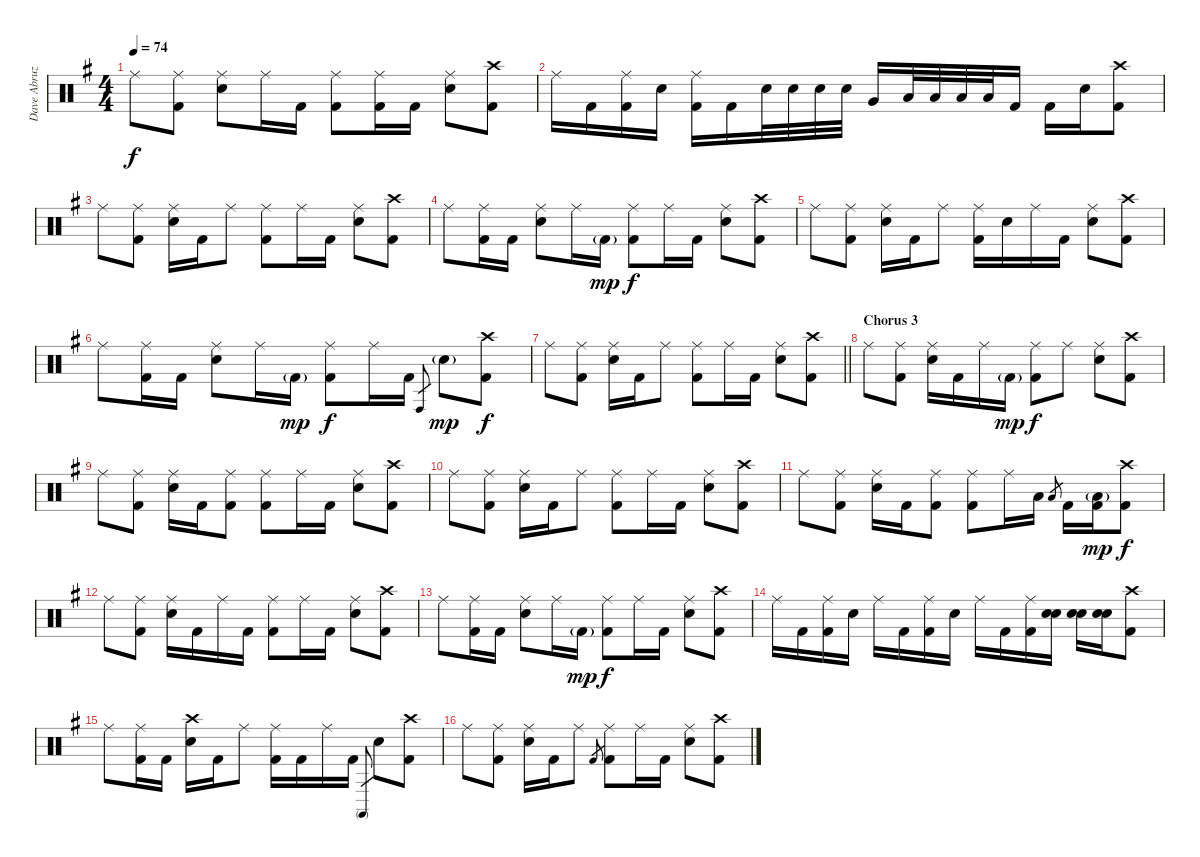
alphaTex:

\track ("Dave Abruzzese" "Dave Abruz") {instrument percussion}
\staff {score}
\articulation defaults
\ts (4 4)
\tempo 74
\clef neutral
\ks eminor "Ride (middle)".8{dy f}
("Ride (middle)" "Kick (hit) 2").8 ("Ride (middle)" "Electric Snare (hit)").8 "Ride (middle)".16 "Kick (hit) 2".16 ("Ride (middle)" "Kick (hit) 2").8 ("Ride (middle)" "Kick (hit) 2").16 "Kick (hit) 2".16 ("Ride (middle)" "Electric Snare (hit)").8 ("Crash high (hit)" "Kick (hit) 2").8 |
"Ride (middle)".16 "Kick (hit) 2".16 ("Ride (middle)" "Kick (hit) 2").16 "Electric Snare (hit)".16 ("Ride (middle)" "Kick (hit) 2").16 "Kick (hit) 2".16 "Electric Snare (hit)".32 "Electric Snare (hit)".32 "Electric Snare (hit)".32 "Electric Snare (hit)".32 "Very Low Tom (hit)".16 "Low Tom (hit)".32 "Low Tom (hit)".32 "Low Tom (hit)".32 "Low Tom (hit)".32 "Kick (hit) 2".16 "Kick (hit) 2".16 "Electric Snare (hit)".16 ("Crash high (hit)" "Kick (hit) 2").8 |
"Ride (middle)".8 ("Ride (middle)" "Kick (hit) 2").8 ("Ride (middle)" "Electric Snare (hit)").16 "Kick (hit) 2".16 "Ride (middle)".8 ("Ride (middle)" "Kick (hit) 2").8 "Ride (middle)".16 "Kick (hit) 2".16 ("Ride (middle)" "Electric Snare (hit)").8 ("Crash high (hit)" "Kick (hit) 2").8 |
"Ride (middle)".8 ("Ride (middle)" "Kick (hit) 2").16 "Kick (hit) 2".16 ("Ride (middle)" "Electric Snare (hit)").8 "Ride (middle)".16 "Kick (hit) 2"{g}.16{dy mp} ("Ride (middle)" "Kick (hit) 2").8{dy f} "Ride (middle)".16 "Kick (hit) 2".16 ("Ride (middle)" "Electric Snare (hit)").8 ("Crash high (hit)" "Kick (hit) 2").8 |
"Ride (middle)".8 ("Ride (middle)" "Kick (hit) 2").8 ("Ride (middle)" "Electric Snare (hit)").16 "Kick (hit) 2".16 "Ride (middle)".8 ("Ride (middle)" "Kick (hit) 2").16 "Electric Snare (hit)".16 "Ride (middle)".16 "Kick (hit) 2".16 ("Ride (middle)" "Electric Snare (hit)").8 ("Crash high (hit)" "Kick (hit) 2").8 |
"Ride (middle)".8 ("Ride (middle)" "Kick (hit) 2").16 "Kick (hit) 2".16 ("Ride (middle)" "Electric Snare (hit)").8 "Ride (middle)".16 "Kick (hit) 2"{g}.16{dy mp} ("Ride (middle)" "Kick (hit) 2").8{dy f} "Ride (middle)".16 "Kick (hit) 2".16 "Conga high (hit)".8{gr} "Electric Snare (hit)"{g}.8{dy mp} ("Crash high (hit)" "Kick (hit) 2").8{dy f} |
\barLineRight lightlight "Ride (middle)".8
("Ride (middle)" "Kick (hit) 2").8 ("Ride (middle)" "Electric Snare (hit)").16 "Kick (hit) 2".16 "Ride (middle)".8 ("Ride (middle)" "Kick (hit) 2").8 "Ride (middle)".16 "Kick (hit) 2".16 ("Ride (middle)" "Electric Snare (hit)").8 ("Crash high (hit)" "Kick (hit) 2").8 |
\section ("" "Chorus 3")
"Ride (middle)".8 ("Ride (middle)" "Kick (hit) 2").8 ("Ride (middle)" "Electric Snare (hit)").16 "Kick (hit) 2".16 "Ride (middle)".16 "Kick (hit) 2"{g}.16{dy mp} ("Ride (middle)" "Kick (hit) 2").8{dy f} "Ride (middle)".8 ("Ride (middle)" "Electric Snare (hit)").8 ("Crash high (hit)" "Kick (hit) 2").8 |
"Ride (middle)".8 ("Ride (middle)" "Kick (hit) 2").8 ("Ride (middle)" "Electric Snare (hit)").16 "Kick (hit) 2".16 ("Ride (middle)" "Kick (hit) 2").8 ("Ride (middle)" "Kick (hit) 2").8 "Ride (middle)".16 "Kick (hit) 2".16 ("Ride (middle)" "Electric Snare (hit)").8 ("Crash high (hit)" "Kick (hit) 2").8 |
"Ride (middle)".8 ("Ride (middle)" "Kick (hit) 2").8 ("Ride (middle)" "Electric Snare (hit)").16 "Kick (hit) 2".16 "Ride (middle)".8 ("Ride (middle)" "Kick (hit) 2").8 "Ride (middle)".16 "Kick (hit) 2".16 ("Ride (middle)" "Electric Snare (hit)").8 ("Crash high (hit)" "Kick (hit) 2").8 |
"Ride (middle)".8 ("Ride (middle)" "Kick (hit) 2").8 ("Ride (middle)" "Electric Snare (hit)").16 "Kick (hit) 2".16 ("Ride (middle)" "Kick (hit) 2").8 ("Ride (middle)" "Kick (hit) 2").8 "Ride (middle)".16 "Low Tom (hit)".16 "Low Floor Tom (hit)".8{gr} "Kick (hit) 2".16 ("Low Floor Tom (hit)"{g} "Kick (hit) 2").16{dy mp} ("Crash high (hit)" "Kick (hit) 2").8{dy f} |
"Ride (middle)".8 ("Ride (middle)" "Kick (hit) 2").8 ("Ride (middle)" "Electric Snare (hit)").16 "Kick (hit) 2".16 "Ride (middle)".16 "Kick (hit) 2".16 ("Ride (middle)" "Kick (hit) 2").8 "Ride (middle)".16 "Kick (hit) 2".16 ("Ride (middle)" "Electric Snare (hit)").8 ("Crash high (hit)" "Kick (hit) 2").8 |
"Ride (middle)".8 ("Ride (middle)" "Kick (hit) 2").16 "Kick (hit) 2".16 ("Ride (middle)" "Electric Snare (hit)").8 "Ride (middle)".16 "Kick (hit) 2"{g}.16{dy mp} ("Ride (middle)" "Kick (hit) 2").8{dy f} "Ride (middle)".16 "Kick (hit) 2".16 ("Ride (middle)" "Electric Snare (hit)").8 ("Crash high (hit)" "Kick (hit) 2").8 |
"Ride (middle)".16 "Kick (hit) 2".16 ("Ride (middle)" "Kick (hit) 2").16 "Electric Snare (hit)".16 "Ride (middle)".16 "Kick (hit) 2".16 ("Ride (middle)" "Kick (hit) 2").16 "Electric Snare (hit)".16 "Ride (middle)".16 "Kick (hit) 2".16 ("Ride (middle)" "Kick (hit) 2").16 ("Electric Snare (hit)" "Electric Snare (hit)").16 ("Electric Snare (hit)" "Electric Snare (hit)").16 ("Electric Snare (hit)" "Electric Snare (hit)").16 ("Crash high (hit)" "Kick (hit) 2").8 |
"Ride (middle)".8 ("Ride (middle)" "Kick (hit) 2").16 "Kick (hit) 2".16 ("Crash high (hit)" "Electric Snare (hit)").16 "Kick (hit) 2".16 "Ride (middle)".8 ("Ride (middle)" "Kick (hit) 2").16 "Kick (hit) 2".16 "Ride (middle)".16 "Kick (hit) 2".16 "Conga high (mute)".8{gr} "Electric Snare (hit)".8 ("Crash high (hit)" "Kick (hit) 2").8 |
"Ride (middle)".8 ("Ride (middle)" "Kick (hit) 2").8 ("Ride (middle)" "Electric Snare (hit)").16 "Kick (hit) 2".16 "Ride (middle)".8 "Kick (hit) 2".8{gr} ("Ride (middle)" "Kick (hit) 2").8 "Ride (middle)".16 "Kick (hit) 2".16 ("Ride (middle)" "Electric Snare (hit)").8 ("Crash high (hit)" "Kick (hit) 2").8
